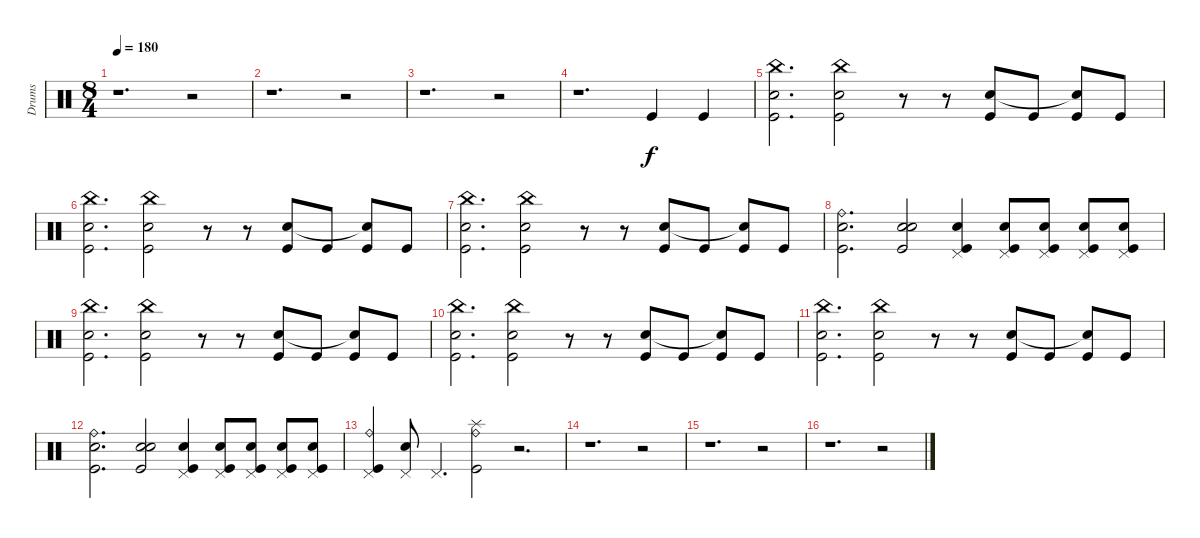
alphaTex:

\track ("Drums" "Drums") {instrument percussion}
\staff {score}
\articulation defaults
\ts (8 4)
\tempo 180
\clef neutral
\ks c
r.1{d dy f} r.2 |
r.1{d} r.2 |
r.1{d} r.2 |
r.1{d} "Kick (hit)".4 "Kick (hit)".4 |
("Electric Snare (hit)" "Kick (hit)" "China (hit)").2{d} ("Electric Snare (hit)" "Kick (hit)" "China (hit)").2 r.8 r.8 ("Kick (hit)" "Electric Snare (hit)").8 "Kick (hit)".8 ("Kick (hit)" "Electric Snare (hit)"{t}).8 "Kick (hit)".8 |
("Electric Snare (hit)" "Kick (hit)" "China (hit)").2{d} ("Electric Snare (hit)" "Kick (hit)" "China (hit)").2 r.8 r.8 ("Kick (hit)" "Electric Snare (hit)").8 "Kick (hit)".8 ("Kick (hit)" "Electric Snare (hit)"{t}).8 "Kick (hit)".8 |
("Electric Snare (hit)" "Kick (hit)" "China (hit)").2{d} ("Electric Snare (hit)" "Kick (hit)" "China (hit)").2 r.8 r.8 ("Kick (hit)" "Electric Snare (hit)").8 "Kick (hit)".8 ("Kick (hit)" "Electric Snare (hit)"{t}).8 "Kick (hit)".8 |
("Electric Snare (hit)" "Kick (hit)" "Ride (bell)").2{d} ("Electric Snare (hit)" "Kick (hit)" "Electric Snare (hit)").2 ("Pedal Hi-Hat (hit)" "Kick (hit)" "Electric Snare (hit)").4 ("Pedal Hi-Hat (hit)" "Kick (hit)" "Electric Snare (hit)").8 ("Pedal Hi-Hat (hit)" "Kick (hit)" "Electric Snare (hit)").8 ("Pedal Hi-Hat (hit)" "Kick (hit)" "Electric Snare (hit)").8 ("Pedal Hi-Hat (hit)" "Kick (hit)" "Electric Snare (hit)").8 |
("Electric Snare (hit)" "Kick (hit)" "China (hit)").2{d} ("Electric Snare (hit)" "Kick (hit)" "China (hit)").2 r.8 r.8 ("Kick (hit)" "Electric Snare (hit)").8 "Kick (hit)".8 ("Kick (hit)" "Electric Snare (hit)"{t}).8 "Kick (hit)".8 |
("Electric Snare (hit)" "Kick (hit)" "China (hit)").2{d} ("Electric Snare (hit)" "Kick (hit)" "China (hit)").2 r.8 r.8 ("Kick (hit)" "Electric Snare (hit)").8 "Kick (hit)".8 ("Kick (hit)" "Electric Snare (hit)"{t}).8 "Kick (hit)".8 |
("Electric Snare (hit)" "Kick (hit)" "China (hit)").2{d} ("Electric Snare (hit)" "Kick (hit)" "China (hit)").2 r.8 r.8 ("Kick (hit)" "Electric Snare (hit)").8 "Kick (hit)".8 ("Kick (hit)" "Electric Snare (hit)"{t}).8 "Kick (hit)".8 |
("Electric Snare (hit)" "Kick (hit)" "Ride (bell)").2{d} ("Electric Snare (hit)" "Kick (hit)" "Electric Snare (hit)").2 ("Pedal Hi-Hat (hit)" "Kick (hit)" "Electric Snare (hit)").4 ("Pedal Hi-Hat (hit)" "Kick (hit)" "Electric Snare (hit)").8 ("Pedal Hi-Hat (hit)" "Kick (hit)" "Electric Snare (hit)").8 ("Pedal Hi-Hat (hit)" "Kick (hit)" "Electric Snare (hit)").8 ("Pedal Hi-Hat (hit)" "Kick (hit)" "Electric Snare (hit)").8 |
("Pedal Hi-Hat (hit)" "Kick (hit)" "Ride (bell)").4 ("Pedal Hi-Hat (hit)" "Electric Snare (hit)").8 "Pedal Hi-Hat (hit)".4{d} ("Ride (bell)" "Kick (hit)" "Splash (hit)").2 r.2{d} |
r.1{d} r.2 |
r.1{d} r.2 |
r.1{d} r.2
